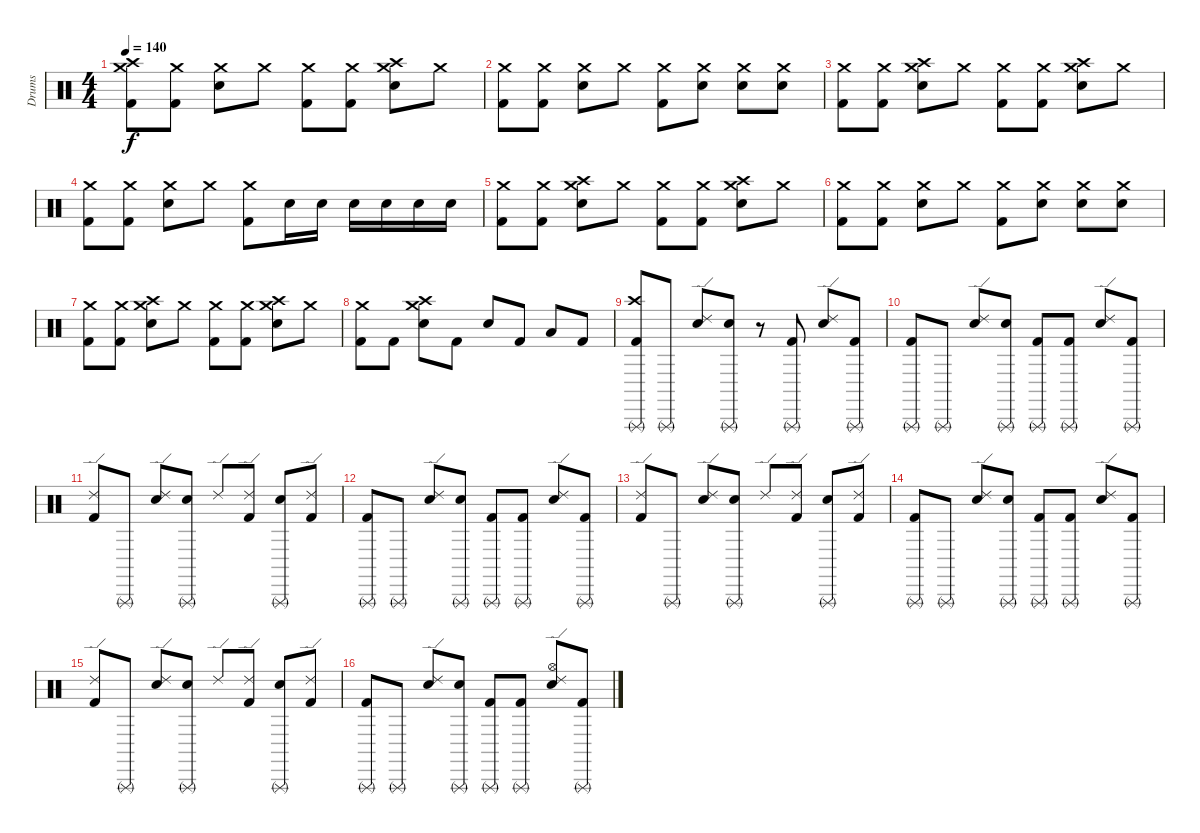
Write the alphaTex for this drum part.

\track ("Drums" "Drums") {instrument percussion}
\staff {score}
\articulation defaults
\ts (4 4)
\tempo 140
\clef neutral
\ks c
("Crash medium (hit)" "Crash high (hit)" "Kick (hit) 2").8{dy f} ("Crash medium (hit)" "Kick (hit) 2").8 ("Crash medium (hit)" "Electric Snare (hit)").8 "Crash medium (hit)".8 ("Crash medium (hit)" "Kick (hit) 2").8 ("Crash medium (hit)" "Kick (hit) 2").8 ("Crash medium (hit)" "Crash high (hit)" "Electric Snare (hit)").8 "Crash medium (hit)".8 |
("Crash medium (hit)" "Kick (hit) 2").8 ("Crash medium (hit)" "Kick (hit) 2").8 ("Crash medium (hit)" "Electric Snare (hit)").8 "Crash medium (hit)".8 ("Crash medium (hit)" "Kick (hit) 2").8 ("Crash medium (hit)" "Electric Snare (hit)").8 ("Crash medium (hit)" "Electric Snare (hit)").8 ("Crash medium (hit)" "Electric Snare (hit)").8 |
("Crash medium (hit)" "Kick (hit) 2").8 ("Crash medium (hit)" "Kick (hit) 2").8 ("Crash medium (hit)" "Crash high (hit)" "Electric Snare (hit)").8 "Crash medium (hit)".8 ("Crash medium (hit)" "Kick (hit) 2").8 ("Crash medium (hit)" "Kick (hit) 2").8 ("Crash medium (hit)" "Crash high (hit)" "Electric Snare (hit)").8 "Crash medium (hit)".8 |
("Crash medium (hit)" "Kick (hit) 2").8 ("Crash medium (hit)" "Kick (hit) 2").8 ("Crash medium (hit)" "Electric Snare (hit)").8 "Crash medium (hit)".8 ("Crash medium (hit)" "Kick (hit) 2").8 "Electric Snare (hit)".16 "Electric Snare (hit)".16 "Electric Snare (hit)".16 "Electric Snare (hit)".16 "Electric Snare (hit)".16 "Electric Snare (hit)".16 |
("Crash medium (hit)" "Kick (hit) 2").8 ("Crash medium (hit)" "Kick (hit) 2").8 ("Crash medium (hit)" "Crash high (hit)" "Electric Snare (hit)").8 "Crash medium (hit)".8 ("Crash medium (hit)" "Kick (hit) 2").8 ("Crash medium (hit)" "Kick (hit) 2").8 ("Crash medium (hit)" "Crash high (hit)" "Electric Snare (hit)").8 "Crash medium (hit)".8 |
("Crash medium (hit)" "Kick (hit) 2").8 ("Crash medium (hit)" "Kick (hit) 2").8 ("Crash medium (hit)" "Electric Snare (hit)").8 "Crash medium (hit)".8 ("Crash medium (hit)" "Kick (hit) 2").8 ("Crash medium (hit)" "Electric Snare (hit)").8 ("Crash medium (hit)" "Electric Snare (hit)").8 ("Crash medium (hit)" "Electric Snare (hit)").8 |
("Crash medium (hit)" "Kick (hit) 2").8 ("Crash medium (hit)" "Kick (hit) 2").8 ("Crash medium (hit)" "Crash high (hit)" "Electric Snare (hit)").8 "Crash medium (hit)".8 ("Crash medium (hit)" "Kick (hit) 2").8 ("Crash medium (hit)" "Kick (hit) 2").8 ("Crash medium (hit)" "Crash high (hit)" "Electric Snare (hit)").8 "Crash medium (hit)".8 |
("Crash medium (hit)" "Kick (hit) 2").8 "Kick (hit) 2".8 ("Crash medium (hit)" "Crash high (hit)" "Electric Snare (hit)").8 "Kick (hit) 2".8 "Electric Snare (hit)".8 "Kick (hit) 2".8 "Low Tom (hit)".8 "Kick (hit) 2".8 |
("Triangle (rnute)" "Crash high (hit)" "Kick (hit) 2").8 "Triangle (rnute)".8 ("Ride (edge) 2" "Electric Snare (hit)").8 ("Triangle (rnute)" "Electric Snare (hit)").8 r.8 ("Triangle (rnute)" "Kick (hit) 2").8 ("Ride (edge) 2" "Electric Snare (hit)").8 ("Triangle (rnute)" "Kick (hit) 2").8 |
("Triangle (rnute)" "Kick (hit) 2").8 "Triangle (rnute)".8 ("Ride (edge) 2" "Electric Snare (hit)").8 ("Triangle (rnute)" "Electric Snare (hit)").8 ("Triangle (rnute)" "Kick (hit) 2").8 ("Triangle (rnute)" "Kick (hit) 2").8 ("Ride (edge) 2" "Electric Snare (hit)").8 ("Triangle (rnute)" "Kick (hit) 2").8 |
("Ride (edge) 2" "Kick (hit) 2").8 "Triangle (rnute)".8 ("Ride (edge) 2" "Electric Snare (hit)").8 ("Triangle (rnute)" "Electric Snare (hit)").8 "Ride (edge) 2".8 ("Ride (edge) 2" "Kick (hit) 2").8 ("Triangle (rnute)" "Electric Snare (hit)").8 ("Ride (edge) 2" "Kick (hit) 2").8 |
("Triangle (rnute)" "Kick (hit) 2").8 "Triangle (rnute)".8 ("Ride (edge) 2" "Electric Snare (hit)").8 ("Triangle (rnute)" "Electric Snare (hit)").8 ("Triangle (rnute)" "Kick (hit) 2").8 ("Triangle (rnute)" "Kick (hit) 2").8 ("Ride (edge) 2" "Electric Snare (hit)").8 ("Triangle (rnute)" "Kick (hit) 2").8 |
("Ride (edge) 2" "Kick (hit) 2").8 "Triangle (rnute)".8 ("Ride (edge) 2" "Electric Snare (hit)").8 ("Triangle (rnute)" "Electric Snare (hit)").8 "Ride (edge) 2".8 ("Ride (edge) 2" "Kick (hit) 2").8 ("Triangle (rnute)" "Electric Snare (hit)").8 ("Ride (edge) 2" "Kick (hit) 2").8 |
("Triangle (rnute)" "Kick (hit) 2").8 "Triangle (rnute)".8 ("Ride (edge) 2" "Electric Snare (hit)").8 ("Triangle (rnute)" "Electric Snare (hit)").8 ("Triangle (rnute)" "Kick (hit) 2").8 ("Triangle (rnute)" "Kick (hit) 2").8 ("Ride (edge) 2" "Electric Snare (hit)").8 ("Triangle (rnute)" "Kick (hit) 2").8 |
("Ride (edge) 2" "Kick (hit) 2").8 "Triangle (rnute)".8 ("Ride (edge) 2" "Electric Snare (hit)").8 ("Triangle (rnute)" "Electric Snare (hit)").8 "Ride (edge) 2".8 ("Ride (edge) 2" "Kick (hit) 2").8 ("Triangle (rnute)" "Electric Snare (hit)").8 ("Ride (edge) 2" "Kick (hit) 2").8 |
("Triangle (rnute)" "Kick (hit) 2").8 "Triangle (rnute)".8 ("Ride (edge) 2" "Electric Snare (hit)").8 ("Triangle (rnute)" "Electric Snare (hit)").8 ("Triangle (rnute)" "Kick (hit) 2").8 ("Triangle (rnute)" "Kick (hit) 2").8 ("Ride (edge) 2" "Electric Snare (hit)" "Hi-Hat (open)").8 ("Triangle (rnute)" "Kick (hit) 2").8
